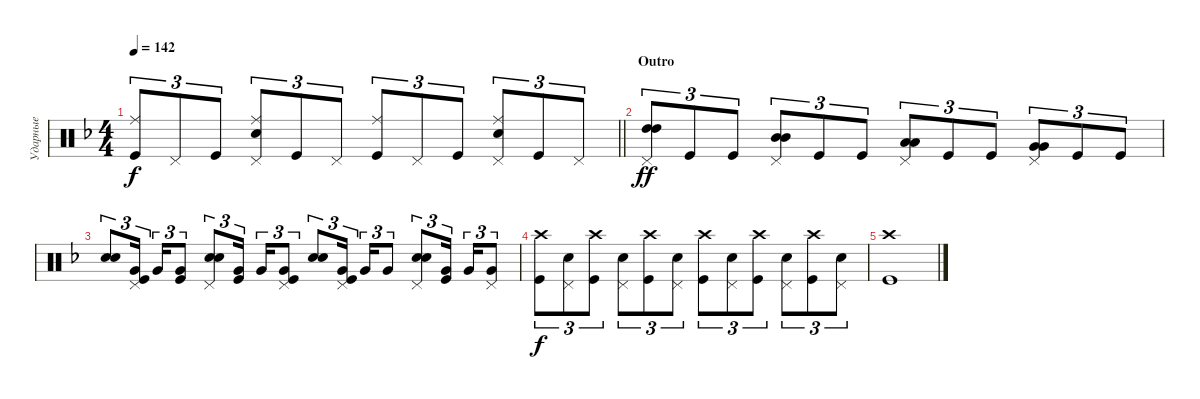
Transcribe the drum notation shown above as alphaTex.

\track ("Ударные" "Ударные") {instrument percussion}
\staff {score}
\articulation defaults
\ts (4 4)
\tempo 142
\clef neutral
\barLineRight lightlight
\ks dminor
("Kick (hit)" "Ride (middle)").8{tu (3 2) dy f} "Pedal Hi-Hat (hit)".8{tu (3 2)} "Kick (hit)".8{tu (3 2)} ("Snare (hit) 2" "Ride (middle)" "Pedal Hi-Hat (hit)").8{tu (3 2)} "Kick (hit)".8{tu (3 2)} "Pedal Hi-Hat (hit)".8{tu (3 2)} ("Kick (hit)" "Ride (middle)").8{tu (3 2)} "Pedal Hi-Hat (hit)".8{tu (3 2)} "Kick (hit)".8{tu (3 2)} ("Snare (hit) 2" "Ride (middle)" "Pedal Hi-Hat (hit)").8{tu (3 2)} "Kick (hit)".8{tu (3 2)} "Pedal Hi-Hat (hit)".8{tu (3 2)} |
\section ("" "Outro")
("High Tom (hit)" "High Tom (hit)" "Pedal Hi-Hat (hit)").8{tu (3 2) bd 240 dy ff} "Kick (hit)".8{tu (3 2)} "Kick (hit)".8{tu (3 2)} ("Mid Tom (hit)" "Mid Tom (hit)" "Pedal Hi-Hat (hit)").8{tu (3 2) bd 240} "Kick (hit)".8{tu (3 2)} "Kick (hit)".8{tu (3 2)} ("Low Tom (hit)" "Low Tom (hit)" "Pedal Hi-Hat (hit)").8{tu (3 2) bd 240} "Kick (hit)".8{tu (3 2)} "Kick (hit)".8{tu (3 2)} ("Very Low Tom (hit)" "Very Low Tom (hit)" "Pedal Hi-Hat (hit)").8{tu (3 2) bd 240} "Kick (hit)".8{tu (3 2)} "Kick (hit)".8{tu (3 2)} |
("Snare (hit) 2" "Snare (hit) 2").8{tu (3 2) bd 240} ("Very Low Tom (hit)" "Kick (hit)" "Pedal Hi-Hat (hit)").16{tu (3 2) beam splitsecondary} "Very Low Tom (hit)".16{tu (3 2)} ("Very Low Tom (hit)" "Kick (hit)").8{tu (3 2)} ("Snare (hit) 2" "Snare (hit) 2" "Pedal Hi-Hat (hit)").8{tu (3 2) bd 240} ("Very Low Tom (hit)" "Kick (hit)").16{tu (3 2) beam splitsecondary} "Very Low Tom (hit)".16{tu (3 2)} ("Very Low Tom (hit)" "Kick (hit)" "Pedal Hi-Hat (hit)").8{tu (3 2)} ("Snare (hit) 2" "Snare (hit) 2").8{tu (3 2) bd 240} ("Very Low Tom (hit)" "Kick (hit)" "Pedal Hi-Hat (hit)").16{tu (3 2) beam splitsecondary} "Very Low Tom (hit)".16{tu (3 2)} "Very Low Tom (hit)".8{tu (3 2)} ("Snare (hit) 2" "Snare (hit) 2" "Pedal Hi-Hat (hit)").8{tu (3 2) bd 240} ("Very Low Tom (hit)" "Kick (hit)").16{tu (3 2) beam splitsecondary} "Very Low Tom (hit)".16{tu (3 2)} ("Very Low Tom (hit)" "Pedal Hi-Hat (hit)").8{tu (3 2)} |
("Kick (hit)" "Crash high (hit)").8{tu (3 2) dy f} ("Snare (hit) 2" "Pedal Hi-Hat (hit)").8{tu (3 2)} ("Kick (hit)" "Crash high (hit)").8{tu (3 2)} ("Snare (hit) 2" "Pedal Hi-Hat (hit)").8{tu (3 2)} ("Kick (hit)" "Crash high (hit)").8{tu (3 2)} ("Snare (hit) 2" "Pedal Hi-Hat (hit)").8{tu (3 2)} ("Kick (hit)" "Crash high (hit)").8{tu (3 2)} ("Snare (hit) 2" "Pedal Hi-Hat (hit)").8{tu (3 2)} ("Kick (hit)" "Crash high (hit)").8{tu (3 2)} ("Snare (hit) 2" "Pedal Hi-Hat (hit)").8{tu (3 2)} ("Kick (hit)" "Crash high (hit)").8{tu (3 2)} ("Snare (hit) 2" "Pedal Hi-Hat (hit)").8{tu (3 2)} |
("Kick (hit)" "Crash high (hit)").1
